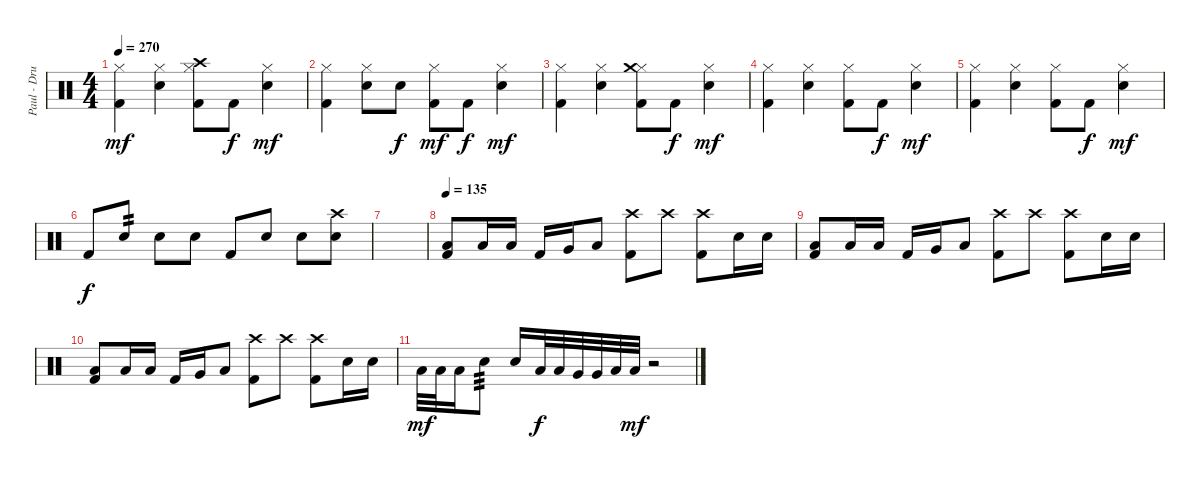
\track ("Paul - Drums" "Paul - Dru") {instrument percussion}
\staff {score}
\articulation defaults
\ts (4 4)
\tempo 270
\clef neutral
\ks c
("Hi-Hat (closed)" "Kick (hit) 2").4{dy mf} ("Hi-Hat (closed)" "Electric Snare (hit)").4 ("Hi-Hat (closed)" "Crash high (hit)" "Kick (hit) 2").8 "Kick (hit) 2".8{dy f} ("Hi-Hat (closed)" "Electric Snare (hit)").4{dy mf} |
("Hi-Hat (closed)" "Kick (hit) 2").4 ("Hi-Hat (closed)" "Electric Snare (hit)").8 "Electric Snare (hit)".8{dy f} ("Hi-Hat (closed)" "Kick (hit) 2").8{dy mf} "Kick (hit) 2".8{dy f} ("Hi-Hat (closed)" "Electric Snare (hit)").4{dy mf} |
("Hi-Hat (closed)" "Kick (hit) 2").4 ("Hi-Hat (closed)" "Electric Snare (hit)").4 ("Hi-Hat (closed)" "Crash medium (hit)" "Kick (hit) 2").8 "Kick (hit) 2".8{dy f} ("Hi-Hat (closed)" "Electric Snare (hit)").4{dy mf} |
("Hi-Hat (closed)" "Kick (hit) 2").4 ("Hi-Hat (closed)" "Electric Snare (hit)").4 ("Hi-Hat (closed)" "Kick (hit) 2").8 "Kick (hit) 2".8{dy f} ("Hi-Hat (closed)" "Electric Snare (hit)").4{dy mf} |
("Hi-Hat (closed)" "Kick (hit) 2").4 ("Hi-Hat (closed)" "Electric Snare (hit)").4 ("Hi-Hat (closed)" "Kick (hit) 2").8 "Kick (hit) 2".8{dy f} ("Hi-Hat (closed)" "Electric Snare (hit)").4{dy mf} |
"Kick (hit) 2".8{dy f} "Electric Snare (hit)".8{tp 2} "Electric Snare (hit)".8 "Electric Snare (hit)".8 "Kick (hit) 2".8 "Electric Snare (hit)".8 "Electric Snare (hit)".8 ("Crash high (hit)" "Electric Snare (hit)").8 |
|
\tempo 135
("Low Tom (hit)" "Kick (hit) 2").8 "Low Tom (hit)".16 "Low Tom (hit)".16 "Kick (hit) 2".16 "Very Low Tom (hit)".16 "Low Floor Tom (hit)".8 ("Crash high (hit)" "Kick (hit) 2").8 "Crash high (hit)".8 ("Crash high (hit)" "Kick (hit) 2").8 "Electric Snare (hit)".16 "Electric Snare (hit)".16 |
("Low Tom (hit)" "Kick (hit) 2").8 "Low Tom (hit)".16 "Low Tom (hit)".16 "Kick (hit) 2".16 "Very Low Tom (hit)".16 "Low Floor Tom (hit)".8 ("Crash high (hit)" "Kick (hit) 2").8 "Crash high (hit)".8 ("Crash high (hit)" "Kick (hit) 2").8 "Electric Snare (hit)".16 "Electric Snare (hit)".16 |
("Low Tom (hit)" "Kick (hit) 2").8 "Low Tom (hit)".16 "Low Tom (hit)".16 "Kick (hit) 2".16 "Very Low Tom (hit)".16 "Low Floor Tom (hit)".8 ("Crash high (hit)" "Kick (hit) 2").8 "Crash high (hit)".8 ("Crash high (hit)" "Kick (hit) 2").8 "Electric Snare (hit)".16 "Electric Snare (hit)".16 |
"Low Tom (hit)".32{dy mf} "Low Tom (hit)".32 "Low Tom (hit)".16 "Electric Snare (hit)".8{tp 3} "Electric Snare (hit)".16 "Low Tom (hit)".32{dy f} "Low Tom (hit)".32 "Very Low Tom (hit)".32 "Very Low Tom (hit)".32 "Low Floor Tom (hit)".32 "Low Floor Tom (hit)".32{dy mf} r.2
